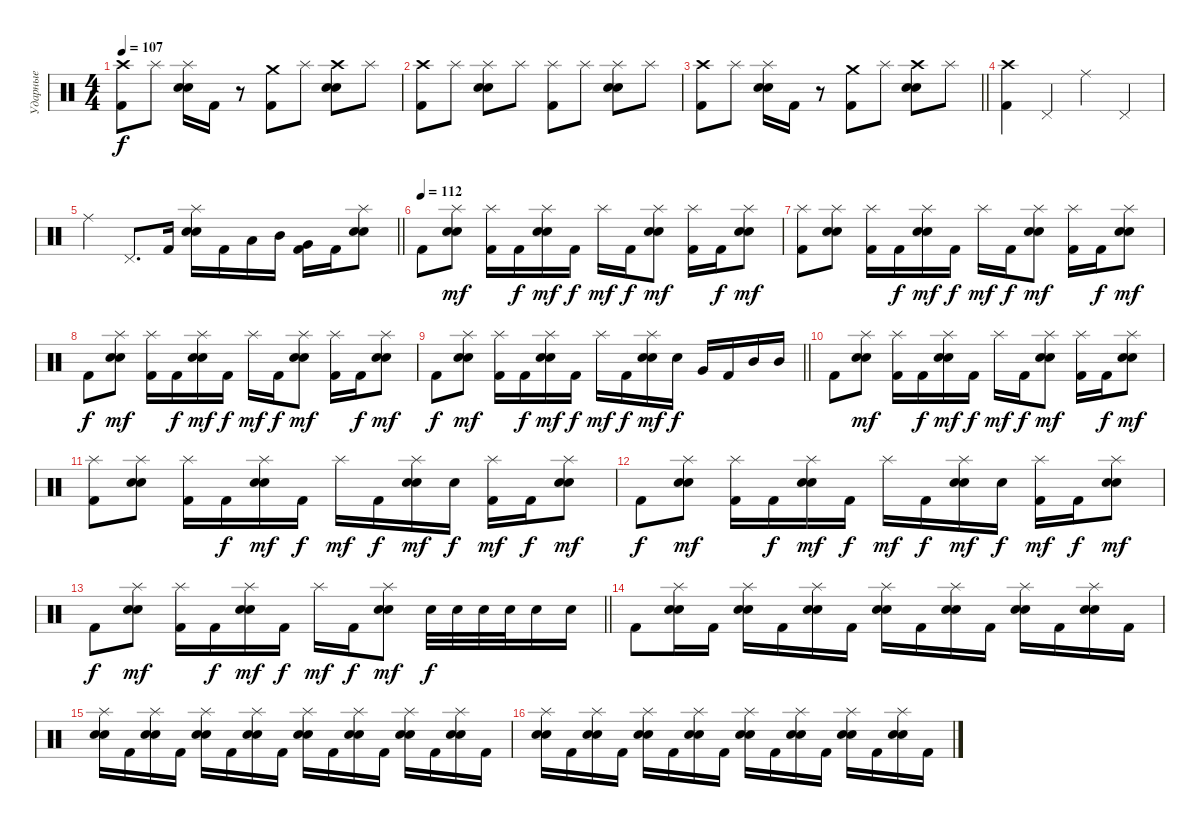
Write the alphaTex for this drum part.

\track ("Ударные" "Ударные") {instrument percussion}
\staff {score}
\articulation defaults
\ts (4 4)
\tempo 107
\clef neutral
\ks c
("Crash high (hit)" "Kick (hit) 2").8{dy f} "Splash (hit)".8 ("Splash (hit)" "Electric Snare (hit)" "Snare (hit) 2").16 "Kick (hit) 2".16 r.8 ("Crash medium (hit)" "Kick (hit) 2").8 "Splash (hit)".8 ("Crash high (hit)" "Electric Snare (hit)" "Snare (hit) 2").8 "Splash (hit)".8 |
("Crash high (hit)" "Kick (hit) 2").8 "Splash (hit)".8 ("Splash (hit)" "Electric Snare (hit)" "Snare (hit) 2").8 "Splash (hit)".8 ("Splash (hit)" "Kick (hit) 2").8 "Splash (hit)".8 ("Splash (hit)" "Electric Snare (hit)" "Snare (hit) 2").8 "Splash (hit)".8 |
\barLineRight lightlight
("Crash high (hit)" "Kick (hit) 2").8 "Splash (hit)".8 ("Splash (hit)" "Electric Snare (hit)" "Snare (hit) 2").16 "Kick (hit) 2".16 r.8 ("Crash medium (hit)" "Kick (hit) 2").8 "Splash (hit)".8 ("Crash high (hit)" "Electric Snare (hit)" "Snare (hit) 2").8 "Splash (hit)".8 |
\section ("" "")
("Crash high (hit)" "Kick (hit) 2").4 "Pedal Hi-Hat (hit)".4 "Ride (middle)".4 "Pedal Hi-Hat (hit)".4 |
\barLineRight lightlight "Ride (middle)".4 "Pedal Hi-Hat (hit)".8{d} "Kick (hit) 2".16
("Splash (hit)" "Electric Snare (hit)" "Snare (hit) 2").16 "Kick (hit) 2".16 "Low Tom (hit)".16 "Mid Tom (hit)".16 ("Very Low Tom (hit)" "Kick (hit) 2").16 "Kick (hit) 2".16 ("Splash (hit)" "Electric Snare (hit)" "Snare (hit) 2").8 |
\section ("" "")
\tempo (112)
"Kick (hit) 2".8 ("Splash (hit)" "Electric Snare (hit)" "Snare (hit) 2").8{dy mf} ("Splash (hit)" "Kick (hit) 2").16 "Kick (hit) 2".16{dy f} ("Splash (hit)" "Electric Snare (hit)" "Snare (hit) 2").16{dy mf} "Kick (hit) 2".16{dy f} "Splash (hit)".16{dy mf} "Kick (hit) 2".16{dy f} ("Splash (hit)" "Electric Snare (hit)" "Snare (hit) 2").8{dy mf} ("Splash (hit)" "Kick (hit) 2").16 "Kick (hit) 2".16{dy f} ("Splash (hit)" "Electric Snare (hit)" "Snare (hit) 2").8{dy mf} |
("Splash (hit)" "Kick (hit) 2").8 ("Splash (hit)" "Electric Snare (hit)" "Snare (hit) 2").8 ("Splash (hit)" "Kick (hit) 2").16 "Kick (hit) 2".16{dy f} ("Splash (hit)" "Electric Snare (hit)" "Snare (hit) 2").16{dy mf} "Kick (hit) 2".16{dy f} "Splash (hit)".16{dy mf} "Kick (hit) 2".16{dy f} ("Splash (hit)" "Electric Snare (hit)" "Snare (hit) 2").8{dy mf} ("Splash (hit)" "Kick (hit) 2").16 "Kick (hit) 2".16{dy f} ("Splash (hit)" "Electric Snare (hit)" "Snare (hit) 2").8{dy mf} |
"Kick (hit) 2".8{dy f} ("Splash (hit)" "Electric Snare (hit)" "Snare (hit) 2").8{dy mf} ("Splash (hit)" "Kick (hit) 2").16 "Kick (hit) 2".16{dy f} ("Splash (hit)" "Electric Snare (hit)" "Snare (hit) 2").16{dy mf} "Kick (hit) 2".16{dy f} "Splash (hit)".16{dy mf} "Kick (hit) 2".16{dy f} ("Splash (hit)" "Electric Snare (hit)" "Snare (hit) 2").8{dy mf} ("Splash (hit)" "Kick (hit) 2").16 "Kick (hit) 2".16{dy f} ("Splash (hit)" "Electric Snare (hit)" "Snare (hit) 2").8{dy mf} |
\barLineRight lightlight "Kick (hit) 2".8{dy f}
("Splash (hit)" "Electric Snare (hit)" "Snare (hit) 2").8{dy mf} ("Splash (hit)" "Kick (hit) 2").16 "Kick (hit) 2".16{dy f} ("Splash (hit)" "Electric Snare (hit)" "Snare (hit) 2").16{dy mf} "Kick (hit) 2".16{dy f} "Splash (hit)".16{dy mf} "Kick (hit) 2".16{dy f} ("Splash (hit)" "Electric Snare (hit)" "Snare (hit) 2").16{dy mf} "Electric Snare (hit)".16{dy f} "Very Low Tom (hit)".16 "Kick (hit) 2".16 "Mid Tom (hit)".16 "Mid Tom (hit)".16 |
\section ("" "")
"Kick (hit) 2".8 ("Splash (hit)" "Electric Snare (hit)" "Snare (hit) 2").8{dy mf} ("Splash (hit)" "Kick (hit) 2").16 "Kick (hit) 2".16{dy f} ("Splash (hit)" "Electric Snare (hit)" "Snare (hit) 2").16{dy mf} "Kick (hit) 2".16{dy f} "Splash (hit)".16{dy mf} "Kick (hit) 2".16{dy f} ("Splash (hit)" "Electric Snare (hit)" "Snare (hit) 2").8{dy mf} ("Splash (hit)" "Kick (hit) 2").16 "Kick (hit) 2".16{dy f} ("Splash (hit)" "Electric Snare (hit)" "Snare (hit) 2").8{dy mf} |
("Splash (hit)" "Kick (hit) 2").8 ("Splash (hit)" "Electric Snare (hit)" "Snare (hit) 2").8 ("Splash (hit)" "Kick (hit) 2").16 "Kick (hit) 2".16{dy f} ("Splash (hit)" "Electric Snare (hit)" "Snare (hit) 2").16{dy mf} "Kick (hit) 2".16{dy f} "Splash (hit)".16{dy mf} "Kick (hit) 2".16{dy f} ("Splash (hit)" "Electric Snare (hit)" "Snare (hit) 2").16{dy mf} "Electric Snare (hit)".16{dy f} ("Splash (hit)" "Kick (hit) 2").16{dy mf} "Kick (hit) 2".16{dy f} ("Splash (hit)" "Electric Snare (hit)" "Snare (hit) 2").8{dy mf} |
"Kick (hit) 2".8{dy f} ("Splash (hit)" "Electric Snare (hit)" "Snare (hit) 2").8{dy mf} ("Splash (hit)" "Kick (hit) 2").16 "Kick (hit) 2".16{dy f} ("Splash (hit)" "Electric Snare (hit)" "Snare (hit) 2").16{dy mf} "Kick (hit) 2".16{dy f} "Splash (hit)".16{dy mf} "Kick (hit) 2".16{dy f} ("Splash (hit)" "Electric Snare (hit)" "Snare (hit) 2").16{dy mf} "Electric Snare (hit)".16{dy f} ("Splash (hit)" "Kick (hit) 2").16{dy mf} "Kick (hit) 2".16{dy f} ("Splash (hit)" "Electric Snare (hit)" "Snare (hit) 2").8{dy mf} |
\barLineRight lightlight "Kick (hit) 2".8{dy f}
("Splash (hit)" "Electric Snare (hit)" "Snare (hit) 2").8{dy mf} ("Splash (hit)" "Kick (hit) 2").16 "Kick (hit) 2".16{dy f} ("Splash (hit)" "Electric Snare (hit)" "Snare (hit) 2").16{dy mf} "Kick (hit) 2".16{dy f} "Splash (hit)".16{dy mf} "Kick (hit) 2".16{dy f} ("Splash (hit)" "Electric Snare (hit)" "Snare (hit) 2").8{dy mf} "Electric Snare (hit)".32{dy f} "Electric Snare (hit)".32 "Electric Snare (hit)".32 "Electric Snare (hit)".32 "Electric Snare (hit)".16 "Electric Snare (hit)".16 |
\section ("" "")
"Kick (hit) 2".8 ("Splash (hit)" "Electric Snare (hit)" "Snare (hit) 2").16 "Kick (hit) 2".16 ("Splash (hit)" "Electric Snare (hit)" "Snare (hit) 2").16 "Kick (hit) 2".16 ("Splash (hit)" "Electric Snare (hit)" "Snare (hit) 2").16 "Kick (hit) 2".16 ("Splash (hit)" "Electric Snare (hit)" "Snare (hit) 2").16 "Kick (hit) 2".16 ("Splash (hit)" "Electric Snare (hit)" "Snare (hit) 2").16 "Kick (hit) 2".16 ("Splash (hit)" "Electric Snare (hit)" "Snare (hit) 2").16 "Kick (hit) 2".16 ("Splash (hit)" "Electric Snare (hit)" "Snare (hit) 2").16 "Kick (hit) 2".16 |
("Splash (hit)" "Electric Snare (hit)" "Snare (hit) 2").16 "Kick (hit) 2".16 ("Splash (hit)" "Electric Snare (hit)" "Snare (hit) 2").16 "Kick (hit) 2".16 ("Splash (hit)" "Electric Snare (hit)" "Snare (hit) 2").16 "Kick (hit) 2".16 ("Splash (hit)" "Electric Snare (hit)" "Snare (hit) 2").16 "Kick (hit) 2".16 ("Splash (hit)" "Electric Snare (hit)" "Snare (hit) 2").16 "Kick (hit) 2".16 ("Splash (hit)" "Electric Snare (hit)" "Snare (hit) 2").16 "Kick (hit) 2".16 ("Splash (hit)" "Electric Snare (hit)" "Snare (hit) 2").16 "Kick (hit) 2".16 ("Splash (hit)" "Electric Snare (hit)" "Snare (hit) 2").16 "Kick (hit) 2".16 |
("Splash (hit)" "Electric Snare (hit)" "Snare (hit) 2").16 "Kick (hit) 2".16 ("Splash (hit)" "Electric Snare (hit)" "Snare (hit) 2").16 "Kick (hit) 2".16 ("Splash (hit)" "Electric Snare (hit)" "Snare (hit) 2").16 "Kick (hit) 2".16 ("Splash (hit)" "Electric Snare (hit)" "Snare (hit) 2").16 "Kick (hit) 2".16 ("Splash (hit)" "Electric Snare (hit)" "Snare (hit) 2").16 "Kick (hit) 2".16 ("Splash (hit)" "Electric Snare (hit)" "Snare (hit) 2").16 "Kick (hit) 2".16 ("Splash (hit)" "Electric Snare (hit)" "Snare (hit) 2").16 "Kick (hit) 2".16 ("Splash (hit)" "Electric Snare (hit)" "Snare (hit) 2").16 "Kick (hit) 2".16
